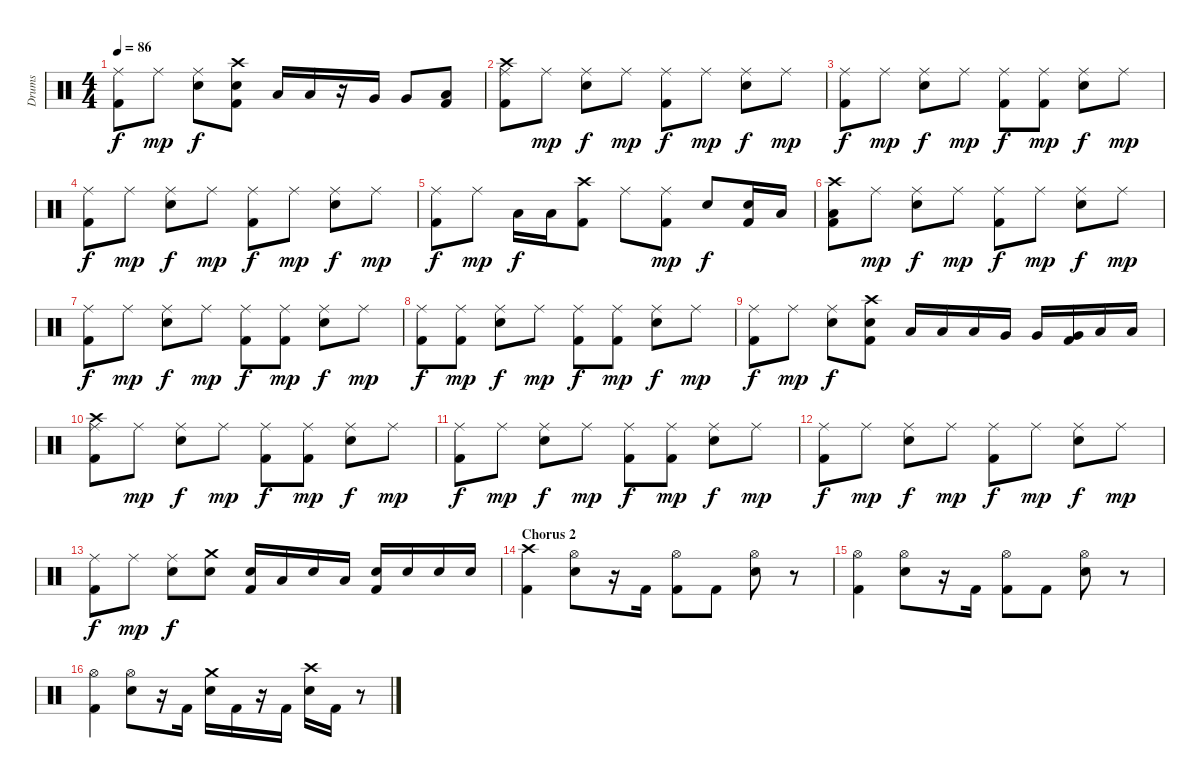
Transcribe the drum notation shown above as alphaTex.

\track ("Drums" "Drums") {instrument percussion}
\staff {score}
\articulation defaults
\ts (4 4)
\tempo 86
\clef neutral
\ks c
("Kick (hit) 2" "Ride (middle)").8{dy f} "Ride (middle)".8{dy mp} ("Ride (middle)" "Electric Snare (hit)").8{dy f} ("Kick (hit) 2" "Electric Snare (hit)" "Crash high (hit)").8 "Low Tom (hit)".16 "Low Tom (hit)".16 r.16 "Very Low Tom (hit)".16 "Very Low Tom (hit)".8 ("Kick (hit) 2" "Low Floor Tom (hit)").8 |
("Kick (hit) 2" "Ride (middle)" "Crash high (hit)").8 "Ride (middle)".8{dy mp} ("Ride (middle)" "Electric Snare (hit)").8{dy f} "Ride (middle)".8{dy mp} ("Kick (hit) 2" "Ride (middle)").8{dy f} "Ride (middle)".8{dy mp} ("Ride (middle)" "Electric Snare (hit)").8{dy f} "Ride (middle)".8{dy mp} |
("Kick (hit) 2" "Ride (middle)").8{dy f} "Ride (middle)".8{dy mp} ("Ride (middle)" "Electric Snare (hit)").8{dy f} "Ride (middle)".8{dy mp} ("Kick (hit) 2" "Ride (middle)").8{dy f} ("Kick (hit) 2" "Ride (middle)").8{dy mp} ("Ride (middle)" "Electric Snare (hit)").8{dy f} "Ride (middle)".8{dy mp} |
("Kick (hit) 2" "Ride (middle)").8{dy f} "Ride (middle)".8{dy mp} ("Ride (middle)" "Electric Snare (hit)").8{dy f} "Ride (middle)".8{dy mp} ("Kick (hit) 2" "Ride (middle)").8{dy f} "Ride (middle)".8{dy mp} ("Ride (middle)" "Electric Snare (hit)").8{dy f} "Ride (middle)".8{dy mp} |
("Kick (hit) 2" "Ride (middle)").8{dy f} "Ride (middle)".8{dy mp} "Low Tom (hit)".16{dy f} "Low Tom (hit)".16 ("Kick (hit) 2" "Crash high (hit)").8 "Ride (middle)".8 ("Kick (hit) 2" "Ride (middle)").8{dy mp} "Electric Snare (hit)".8{dy f} ("Kick (hit) 2" "Electric Snare (hit)").16 "Low Tom (hit)".16 |
("Kick (hit) 2" "Low Floor Tom (hit)" "Crash high (hit)").8 "Ride (middle)".8{dy mp} ("Ride (middle)" "Electric Snare (hit)").8{dy f} "Ride (middle)".8{dy mp} ("Kick (hit) 2" "Ride (middle)").8{dy f} "Ride (middle)".8{dy mp} ("Ride (middle)" "Electric Snare (hit)").8{dy f} "Ride (middle)".8{dy mp} |
("Kick (hit) 2" "Ride (middle)").8{dy f} "Ride (middle)".8{dy mp} ("Ride (middle)" "Electric Snare (hit)").8{dy f} "Ride (middle)".8{dy mp} ("Kick (hit) 2" "Ride (middle)").8{dy f} ("Kick (hit) 2" "Ride (middle)").8{dy mp} ("Ride (middle)" "Electric Snare (hit)").8{dy f} "Ride (middle)".8{dy mp} |
("Kick (hit) 2" "Ride (middle)").8{dy f} ("Kick (hit) 2" "Ride (middle)").8{dy mp} ("Ride (middle)" "Electric Snare (hit)").8{dy f} "Ride (middle)".8{dy mp} ("Kick (hit) 2" "Ride (middle)").8{dy f} ("Kick (hit) 2" "Ride (middle)").8{dy mp} ("Ride (middle)" "Electric Snare (hit)").8{dy f} "Ride (middle)".8{dy mp} |
("Kick (hit) 2" "Ride (middle)").8{dy f} "Ride (middle)".8{dy mp} ("Ride (middle)" "Electric Snare (hit)").8{dy f} ("Kick (hit) 2" "Electric Snare (hit)" "Crash high (hit)").8 "Low Tom (hit)".16 "Low Tom (hit)".16 "Low Tom (hit)".16 "Very Low Tom (hit)".16 "Very Low Tom (hit)".16 ("Kick (hit) 2" "Very Low Tom (hit)").16 "Low Floor Tom (hit)".16 "Low Floor Tom (hit)".16 |
("Kick (hit) 2" "Ride (middle)" "Crash high (hit)").8 "Ride (middle)".8{dy mp} ("Ride (middle)" "Electric Snare (hit)").8{dy f} "Ride (middle)".8{dy mp} ("Kick (hit) 2" "Ride (middle)").8{dy f} ("Kick (hit) 2" "Ride (middle)").8{dy mp} ("Ride (middle)" "Electric Snare (hit)").8{dy f} "Ride (middle)".8{dy mp} |
("Kick (hit) 2" "Ride (middle)").8{dy f} "Ride (middle)".8{dy mp} ("Ride (middle)" "Electric Snare (hit)").8{dy f} "Ride (middle)".8{dy mp} ("Kick (hit) 2" "Ride (middle)").8{dy f} ("Kick (hit) 2" "Ride (middle)").8{dy mp} ("Ride (middle)" "Electric Snare (hit)").8{dy f} "Ride (middle)".8{dy mp} |
("Kick (hit) 2" "Ride (middle)").8{dy f} "Ride (middle)".8{dy mp} ("Ride (middle)" "Electric Snare (hit)").8{dy f} "Ride (middle)".8{dy mp} ("Kick (hit) 2" "Ride (middle)").8{dy f} "Ride (middle)".8{dy mp} ("Ride (middle)" "Electric Snare (hit)").8{dy f} "Ride (middle)".8{dy mp} |
("Kick (hit) 2" "Ride (middle)").8{dy f} "Ride (middle)".8{dy mp} ("Ride (middle)" "Electric Snare (hit)").8{dy f} ("Electric Snare (hit)" "Crash medium (hit)").8 ("Kick (hit) 2" "Electric Snare (hit)").16 "Low Tom (hit)".16 "Electric Snare (hit)".16 "Low Floor Tom (hit)".16 ("Kick (hit) 2" "Electric Snare (hit)").16 "Electric Snare (hit)".16 "Electric Snare (hit)".16 "Electric Snare (hit)".16 |
\section ("" "Chorus 2")
("Kick (hit) 2" "Crash high (hit)").4 ("Hi-Hat (open)" "Electric Snare (hit)").8 r.16 "Kick (hit) 2".16 ("Kick (hit) 2" "Hi-Hat (open)").8 "Kick (hit) 2".8 ("Hi-Hat (open)" "Electric Snare (hit)").8 r.8 |
("Kick (hit) 2" "Hi-Hat (open)").4 ("Hi-Hat (open)" "Electric Snare (hit)").8 r.16 "Kick (hit) 2".16 ("Kick (hit) 2" "Hi-Hat (open)").8 "Kick (hit) 2".8 ("Hi-Hat (open)" "Electric Snare (hit)").8 r.8 |
("Kick (hit) 2" "Hi-Hat (open)").4 ("Hi-Hat (open)" "Electric Snare (hit)").8 r.16 "Kick (hit) 2".16 ("Electric Snare (hit)" "Crash medium (hit)").16 "Kick (hit) 2".16 r.16 "Kick (hit) 2".16 ("Electric Snare (hit)" "Crash high (hit)").16 "Kick (hit) 2".16 r.8
